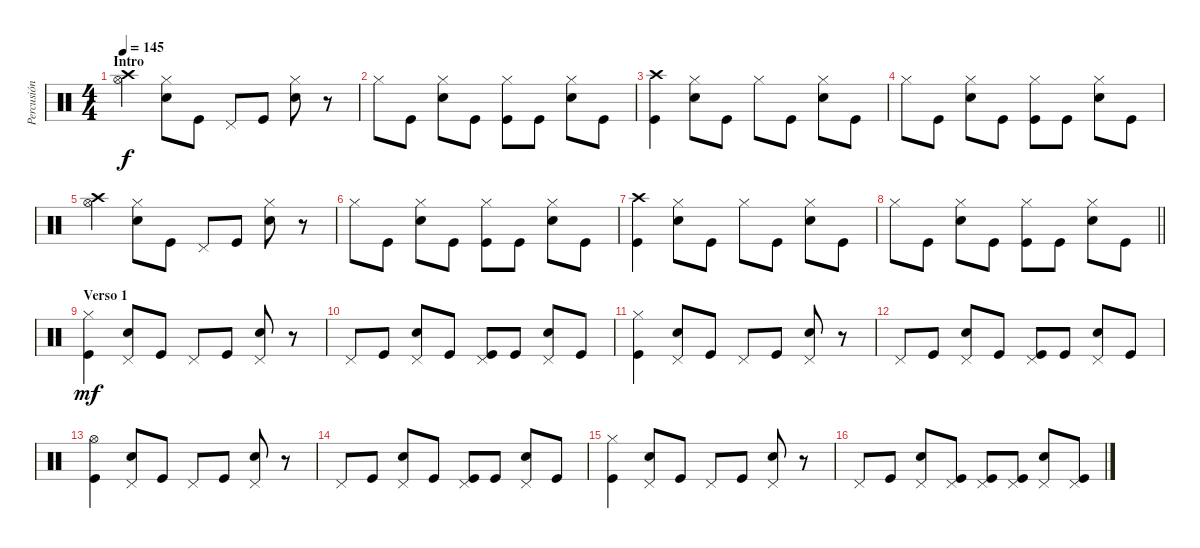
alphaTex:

\track ("Percusión" "Percusión") {instrument percussion}
\staff {score}
\articulation defaults
\ts (4 4)
\section ("" "Intro")
\tempo 145
\clef neutral
\ks c
("Crash high (hit)" "Hi-Hat (open)").4{dy f} ("Hi-Hat (closed)" "Snare (hit) 2").8 "Kick (hit)".8 "Pedal Hi-Hat (hit)".8 "Kick (hit)".8 ("Hi-Hat (closed)" "Snare (hit) 2").8 r.8 |
"Hi-Hat (closed)".8 "Kick (hit)".8 ("Hi-Hat (closed)" "Snare (hit) 2").8 "Kick (hit)".8 ("Hi-Hat (closed)" "Kick (hit)").8 "Kick (hit)".8 ("Hi-Hat (closed)" "Snare (hit) 2").8 "Kick (hit)".8 |
("Crash high (hit)" "Kick (hit)").4 ("Hi-Hat (closed)" "Snare (hit) 2").8 "Kick (hit)".8 "Hi-Hat (closed)".8 "Kick (hit)".8 ("Hi-Hat (closed)" "Snare (hit) 2").8 "Kick (hit)".8 |
"Hi-Hat (closed)".8 "Kick (hit)".8 ("Hi-Hat (closed)" "Snare (hit) 2").8 "Kick (hit)".8 ("Hi-Hat (closed)" "Kick (hit)").8 "Kick (hit)".8 ("Hi-Hat (closed)" "Snare (hit) 2").8 "Kick (hit)".8 |
("Crash high (hit)" "Hi-Hat (open)").4 ("Hi-Hat (closed)" "Snare (hit) 2").8 "Kick (hit)".8 "Pedal Hi-Hat (hit)".8 "Kick (hit)".8 ("Hi-Hat (closed)" "Snare (hit) 2").8 r.8 |
"Hi-Hat (closed)".8 "Kick (hit)".8 ("Hi-Hat (closed)" "Snare (hit) 2").8 "Kick (hit)".8 ("Hi-Hat (closed)" "Kick (hit)").8 "Kick (hit)".8 ("Hi-Hat (closed)" "Snare (hit) 2").8 "Kick (hit)".8 |
("Crash high (hit)" "Kick (hit)").4 ("Hi-Hat (closed)" "Snare (hit) 2").8 "Kick (hit)".8 "Hi-Hat (closed)".8 "Kick (hit)".8 ("Hi-Hat (closed)" "Snare (hit) 2").8 "Kick (hit)".8 |
\barLineRight lightlight "Hi-Hat (closed)".8 "Kick (hit)".8
("Hi-Hat (closed)" "Snare (hit) 2").8 "Kick (hit)".8 ("Hi-Hat (closed)" "Kick (hit)").8 "Kick (hit)".8 ("Hi-Hat (closed)" "Snare (hit) 2").8 "Kick (hit)".8 |
\section ("" "Verso 1")
("Hi-Hat (closed)" "Kick (hit)").4{dy mf} ("Pedal Hi-Hat (hit)" "Snare (hit) 2").8 "Kick (hit)".8 "Pedal Hi-Hat (hit)".8 "Kick (hit)".8 ("Pedal Hi-Hat (hit)" "Snare (hit) 2").8 r.8 |
"Pedal Hi-Hat (hit)".8 "Kick (hit)".8 ("Pedal Hi-Hat (hit)" "Snare (hit) 2").8 "Kick (hit)".8 ("Pedal Hi-Hat (hit)" "Kick (hit)").8 "Kick (hit)".8 ("Pedal Hi-Hat (hit)" "Snare (hit) 2").8 "Kick (hit)".8 |
("Hi-Hat (closed)" "Kick (hit)").4 ("Pedal Hi-Hat (hit)" "Snare (hit) 2").8 "Kick (hit)".8 "Pedal Hi-Hat (hit)".8 "Kick (hit)".8 ("Pedal Hi-Hat (hit)" "Snare (hit) 2").8 r.8 |
"Pedal Hi-Hat (hit)".8 "Kick (hit)".8 ("Pedal Hi-Hat (hit)" "Snare (hit) 2").8 "Kick (hit)".8 ("Pedal Hi-Hat (hit)" "Kick (hit)").8 "Kick (hit)".8 ("Pedal Hi-Hat (hit)" "Snare (hit) 2").8 "Kick (hit)".8 |
("Hi-Hat (open)" "Kick (hit)").4 ("Pedal Hi-Hat (hit)" "Snare (hit) 2").8 "Kick (hit)".8 "Pedal Hi-Hat (hit)".8 "Kick (hit)".8 ("Pedal Hi-Hat (hit)" "Snare (hit) 2").8 r.8 |
"Pedal Hi-Hat (hit)".8 "Kick (hit)".8 ("Pedal Hi-Hat (hit)" "Snare (hit) 2").8 "Kick (hit)".8 ("Pedal Hi-Hat (hit)" "Kick (hit)").8 "Kick (hit)".8 ("Pedal Hi-Hat (hit)" "Snare (hit) 2").8 "Kick (hit)".8 |
("Hi-Hat (closed)" "Kick (hit)").4 ("Pedal Hi-Hat (hit)" "Snare (hit) 2").8 "Kick (hit)".8 "Pedal Hi-Hat (hit)".8 "Kick (hit)".8 ("Pedal Hi-Hat (hit)" "Snare (hit) 2").8 r.8 |
"Pedal Hi-Hat (hit)".8 "Kick (hit)".8 ("Pedal Hi-Hat (hit)" "Snare (hit) 2").8 ("Pedal Hi-Hat (hit)" "Kick (hit)").8 ("Pedal Hi-Hat (hit)" "Kick (hit)").8 ("Pedal Hi-Hat (hit)" "Kick (hit)").8 ("Pedal Hi-Hat (hit)" "Snare (hit) 2").8 ("Pedal Hi-Hat (hit)" "Kick (hit)").8
